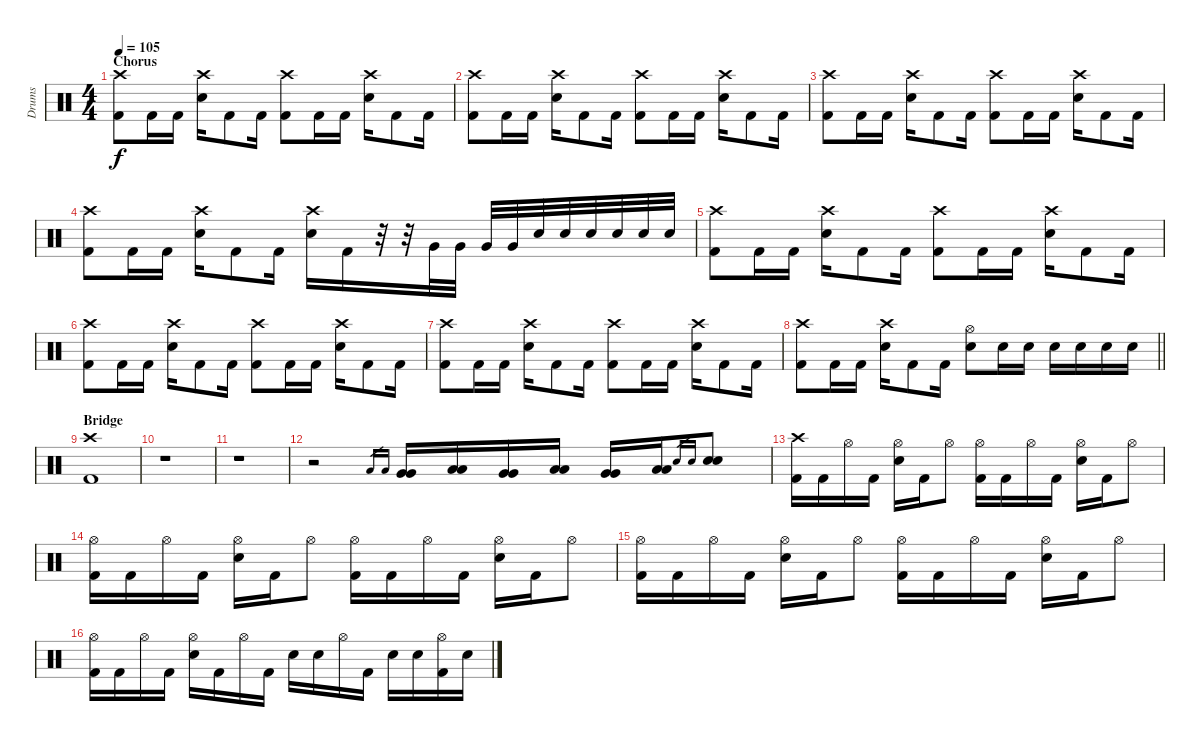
\track ("Drums" "Drums") {instrument percussion}
\staff {score}
\articulation defaults
\ts (4 4)
\section ("" "Chorus")
\tempo 105
\clef neutral
\ks c
("Crash high (hit)" "Kick (hit) 2").8{dy f} "Kick (hit) 2".16 "Kick (hit) 2".16 ("Crash high (hit)" "Snare (hit) 2").16 "Kick (hit) 2".8 "Kick (hit) 2".16 ("Crash high (hit)" "Kick (hit) 2").8 "Kick (hit) 2".16 "Kick (hit) 2".16 ("Crash high (hit)" "Snare (hit) 2").16 "Kick (hit) 2".8 "Kick (hit) 2".16 |
("Crash high (hit)" "Kick (hit) 2").8 "Kick (hit) 2".16 "Kick (hit) 2".16 ("Crash high (hit)" "Snare (hit) 2").16 "Kick (hit) 2".8 "Kick (hit) 2".16 ("Crash high (hit)" "Kick (hit) 2").8 "Kick (hit) 2".16 "Kick (hit) 2".16 ("Crash high (hit)" "Snare (hit) 2").16 "Kick (hit) 2".8 "Kick (hit) 2".16 |
("Crash high (hit)" "Kick (hit) 2").8 "Kick (hit) 2".16 "Kick (hit) 2".16 ("Crash high (hit)" "Snare (hit) 2").16 "Kick (hit) 2".8 "Kick (hit) 2".16 ("Crash high (hit)" "Kick (hit) 2").8 "Kick (hit) 2".16 "Kick (hit) 2".16 ("Crash high (hit)" "Snare (hit) 2").16 "Kick (hit) 2".8 "Kick (hit) 2".16 |
("Crash high (hit)" "Kick (hit) 2").8 "Kick (hit) 2".16 "Kick (hit) 2".16 ("Crash high (hit)" "Snare (hit) 2").16 "Kick (hit) 2".8 "Kick (hit) 2".16 ("Crash high (hit)" "Snare (hit) 2").16 "Kick (hit) 2".16 r.32 r.32 "Very Low Tom (hit)".32 "Very Low Tom (hit)".32 "Very Low Tom (hit)".32 "Very Low Tom (hit)".32 "Snare (hit) 2".32 "Snare (hit) 2".32 "Snare (hit) 2".32 "Snare (hit) 2".32 "Snare (hit) 2".32 "Snare (hit) 2".32 |
("Crash high (hit)" "Kick (hit) 2").8 "Kick (hit) 2".16 "Kick (hit) 2".16 ("Crash high (hit)" "Snare (hit) 2").16 "Kick (hit) 2".8 "Kick (hit) 2".16 ("Crash high (hit)" "Kick (hit) 2").8 "Kick (hit) 2".16 "Kick (hit) 2".16 ("Crash high (hit)" "Snare (hit) 2").16 "Kick (hit) 2".8 "Kick (hit) 2".16 |
("Crash high (hit)" "Kick (hit) 2").8 "Kick (hit) 2".16 "Kick (hit) 2".16 ("Crash high (hit)" "Snare (hit) 2").16 "Kick (hit) 2".8 "Kick (hit) 2".16 ("Crash high (hit)" "Kick (hit) 2").8 "Kick (hit) 2".16 "Kick (hit) 2".16 ("Crash high (hit)" "Snare (hit) 2").16 "Kick (hit) 2".8 "Kick (hit) 2".16 |
("Crash high (hit)" "Kick (hit) 2").8 "Kick (hit) 2".16 "Kick (hit) 2".16 ("Crash high (hit)" "Snare (hit) 2").16 "Kick (hit) 2".8 "Kick (hit) 2".16 ("Crash high (hit)" "Kick (hit) 2").8 "Kick (hit) 2".16 "Kick (hit) 2".16 ("Crash high (hit)" "Snare (hit) 2").16 "Kick (hit) 2".8 "Kick (hit) 2".16 |
\barLineRight lightlight
("Crash high (hit)" "Kick (hit) 2").8 "Kick (hit) 2".16 "Kick (hit) 2".16 ("Crash high (hit)" "Snare (hit) 2").16 "Kick (hit) 2".8 "Kick (hit) 2".16 ("Hi-Hat (open)" "Snare (hit) 2").8 "Snare (hit) 2".16 "Snare (hit) 2".16 "Snare (hit) 2".16 "Snare (hit) 2".16 "Snare (hit) 2".16 "Snare (hit) 2".16 |
\section ("" "Bridge")
("Crash high (hit)" "Kick (hit) 2").1 |
r.1 |
r.1 |
r.2 "Low Tom (hit)".16{gr} "Low Tom (hit)".16{gr} ("Very Low Tom (hit)" "Very Low Tom (hit)").16 ("Low Tom (hit)" "Low Tom (hit)").16 ("Very Low Tom (hit)" "Very Low Tom (hit)").16 ("Low Tom (hit)" "Low Tom (hit)").16 ("Very Low Tom (hit)" "Very Low Tom (hit)").16 ("Low Floor Tom (hit)" "Low Floor Tom (hit)").16 "Snare (hit) 2".16{gr} "Snare (hit) 2".16{gr} ("Snare (hit) 2" "Snare (hit) 2").8 |
("Crash high (hit)" "Kick (hit) 2").16 "Kick (hit) 2".16 "Hi-Hat (open)".16 "Kick (hit) 2".16 ("Hi-Hat (open)" "Snare (hit) 2").16 "Kick (hit) 2".16 "Hi-Hat (open)".8 ("Hi-Hat (open)" "Kick (hit) 2").16 "Kick (hit) 2".16 "Hi-Hat (open)".16 "Kick (hit) 2".16 ("Hi-Hat (open)" "Snare (hit) 2").16 "Kick (hit) 2".16 "Hi-Hat (open)".8 |
("Hi-Hat (open)" "Kick (hit) 2").16 "Kick (hit) 2".16 "Hi-Hat (open)".16 "Kick (hit) 2".16 ("Hi-Hat (open)" "Snare (hit) 2").16 "Kick (hit) 2".16 "Hi-Hat (open)".8 ("Hi-Hat (open)" "Kick (hit) 2").16 "Kick (hit) 2".16 "Hi-Hat (open)".16 "Kick (hit) 2".16 ("Hi-Hat (open)" "Snare (hit) 2").16 "Kick (hit) 2".16 "Hi-Hat (open)".8 |
("Hi-Hat (open)" "Kick (hit) 2").16 "Kick (hit) 2".16 "Hi-Hat (open)".16 "Kick (hit) 2".16 ("Hi-Hat (open)" "Snare (hit) 2").16 "Kick (hit) 2".16 "Hi-Hat (open)".8 ("Hi-Hat (open)" "Kick (hit) 2").16 "Kick (hit) 2".16 "Hi-Hat (open)".16 "Kick (hit) 2".16 ("Hi-Hat (open)" "Snare (hit) 2").16 "Kick (hit) 2".16 "Hi-Hat (open)".8 |
("Hi-Hat (open)" "Kick (hit) 2").16 "Kick (hit) 2".16 "Hi-Hat (open)".16 "Kick (hit) 2".16 ("Hi-Hat (open)" "Snare (hit) 2").16 "Kick (hit) 2".16 "Hi-Hat (open)".16 "Kick (hit) 2".16 "Snare (hit) 2".16 "Snare (hit) 2".16 "Hi-Hat (open)".16 "Kick (hit) 2".16 "Snare (hit) 2".16 "Snare (hit) 2".16 ("Hi-Hat (open)" "Kick (hit) 2").16 "Snare (hit) 2".16
